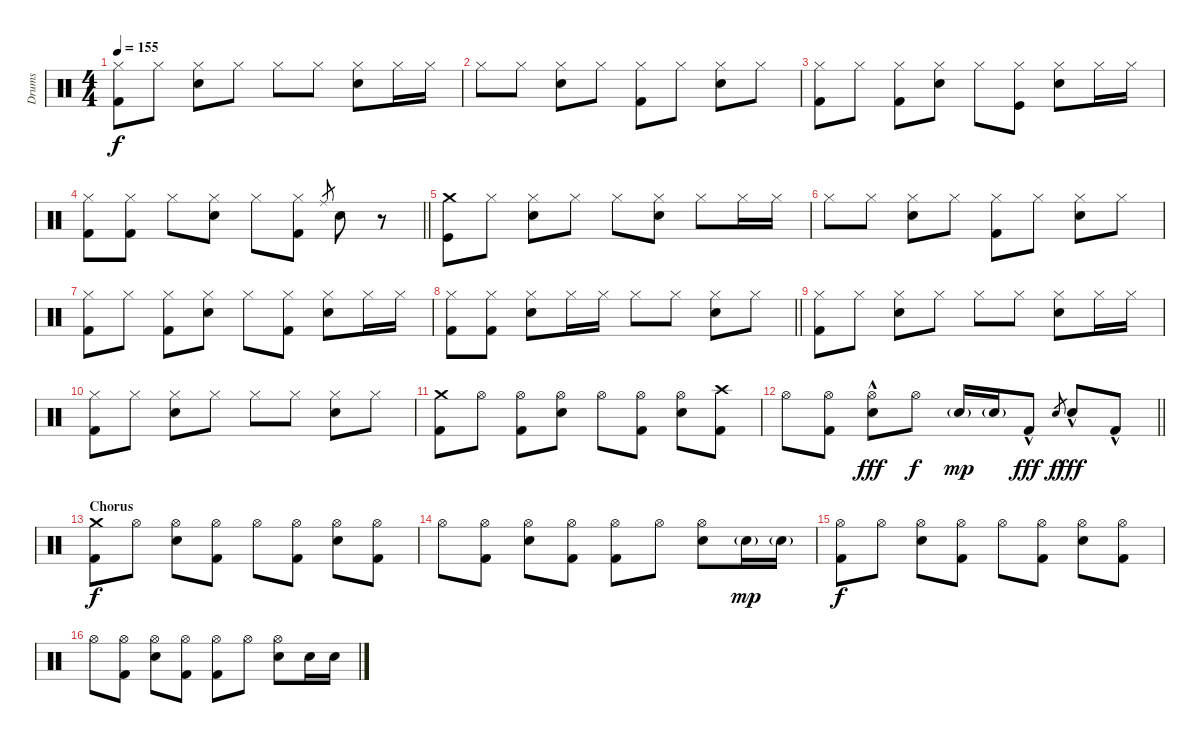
\track ("Drums" "Drums") {instrument percussion}
\staff {score}
\articulation defaults
\ts (4 4)
\tempo 155
\clef neutral
\ks c
("Hi-Hat (closed)" "Kick (hit) 2").8{dy f} "Hi-Hat (closed)".8 ("Hi-Hat (closed)" "Snare (hit) 2").8 "Hi-Hat (closed)".8 "Hi-Hat (closed)".8 "Hi-Hat (closed)".8 ("Hi-Hat (closed)" "Snare (hit) 2").8 "Hi-Hat (closed)".16 "Hi-Hat (closed)".16 |
"Hi-Hat (closed)".8 "Hi-Hat (closed)".8 ("Hi-Hat (closed)" "Snare (hit) 2").8 "Hi-Hat (closed)".8 ("Hi-Hat (closed)" "Kick (hit) 2").8 "Hi-Hat (closed)".8 ("Hi-Hat (closed)" "Snare (hit) 2").8 "Hi-Hat (closed)".8 |
("Hi-Hat (closed)" "Kick (hit) 2").8 "Hi-Hat (closed)".8 ("Hi-Hat (closed)" "Kick (hit) 2").8 ("Hi-Hat (closed)" "Snare (hit) 2").8 "Hi-Hat (closed)".8 ("Hi-Hat (closed)" "Kick (hit)").8 ("Hi-Hat (closed)" "Snare (hit) 2").8 "Hi-Hat (closed)".16 "Hi-Hat (closed)".16 |
\barLineRight lightlight
("Hi-Hat (closed)" "Kick (hit) 2").8 ("Hi-Hat (closed)" "Kick (hit) 2").8 "Hi-Hat (closed)".8 ("Hi-Hat (closed)" "Snare (hit) 2").8 "Hi-Hat (closed)".8 ("Hi-Hat (closed)" "Kick (hit) 2").8 "Ride (middle)".8{gr} "Snare (hit) 2".8 r.8 |
("Crash medium (hit)" "Kick (hit)").8 "Hi-Hat (closed)".8 ("Hi-Hat (closed)" "Snare (hit) 2").8 "Hi-Hat (closed)".8 "Hi-Hat (closed)".8 ("Hi-Hat (closed)" "Snare (hit) 2").8 "Hi-Hat (closed)".8 "Hi-Hat (closed)".16 "Hi-Hat (closed)".16 |
"Hi-Hat (closed)".8 "Hi-Hat (closed)".8 ("Hi-Hat (closed)" "Snare (hit) 2").8 "Hi-Hat (closed)".8 ("Hi-Hat (closed)" "Kick (hit) 2").8 "Hi-Hat (closed)".8 ("Hi-Hat (closed)" "Snare (hit) 2").8 "Hi-Hat (closed)".8 |
("Hi-Hat (closed)" "Kick (hit) 2").8 "Hi-Hat (closed)".8 ("Hi-Hat (closed)" "Kick (hit) 2").8 ("Hi-Hat (closed)" "Snare (hit) 2").8 "Hi-Hat (closed)".8 ("Hi-Hat (closed)" "Kick (hit) 2").8 ("Hi-Hat (closed)" "Snare (hit) 2").8 "Hi-Hat (closed)".16 "Hi-Hat (closed)".16 |
\barLineRight lightlight
("Hi-Hat (closed)" "Kick (hit) 2").8 ("Hi-Hat (closed)" "Kick (hit) 2").8 ("Hi-Hat (closed)" "Snare (hit) 2").8 "Hi-Hat (closed)".16 "Hi-Hat (closed)".16 "Hi-Hat (closed)".8 "Hi-Hat (closed)".8 ("Hi-Hat (closed)" "Snare (hit) 2").8 "Hi-Hat (closed)".8 |
("Hi-Hat (closed)" "Kick (hit) 2").8 "Hi-Hat (closed)".8 ("Hi-Hat (closed)" "Snare (hit) 2").8 "Hi-Hat (closed)".8 "Hi-Hat (closed)".8 "Hi-Hat (closed)".8 ("Hi-Hat (closed)" "Snare (hit) 2").8 "Hi-Hat (closed)".16 "Hi-Hat (closed)".16 |
("Hi-Hat (closed)" "Kick (hit) 2").8 "Hi-Hat (closed)".8 ("Hi-Hat (closed)" "Snare (hit) 2").8 "Hi-Hat (closed)".8 "Hi-Hat (closed)".8 "Hi-Hat (closed)".8 ("Hi-Hat (closed)" "Snare (hit) 2").8 "Hi-Hat (closed)".8 |
("Crash medium (hit)" "Kick (hit) 2").8 "Hi-Hat (open)".8 ("Hi-Hat (open)" "Kick (hit) 2").8 ("Hi-Hat (open)" "Snare (hit) 2").8 "Hi-Hat (open)".8 ("Hi-Hat (open)" "Kick (hit) 2").8 ("Hi-Hat (open)" "Snare (hit) 2").8 ("Crash high (hit)" "Kick (hit) 2").8 |
\barLineRight lightlight "Hi-Hat (open)".8
("Hi-Hat (open)" "Kick (hit) 2").8 ("Hi-Hat (open)" "Snare (hit) 2"{hac}).8{dy fff} "Hi-Hat (open)".8{dy f} "Snare (hit) 2"{g}.16{dy mp} "Snare (hit) 2"{g}.16 "Kick (hit) 2"{hac}.8{dy fff} "Snare (hit) 2".8{gr dy f} "Snare (hit) 2"{hac}.8{dy fff} "Kick (hit) 2"{hac}.8 |
\section ("" "Chorus")
("Crash medium (hit)" "Kick (hit) 2").8{dy f} "Hi-Hat (open)".8 ("Hi-Hat (open)" "Snare (hit) 2").8 ("Hi-Hat (open)" "Kick (hit) 2").8 "Hi-Hat (open)".8 ("Hi-Hat (open)" "Kick (hit) 2").8 ("Hi-Hat (open)" "Snare (hit) 2").8 ("Hi-Hat (open)" "Kick (hit) 2").8 |
"Hi-Hat (open)".8 ("Hi-Hat (open)" "Kick (hit) 2").8 ("Hi-Hat (open)" "Snare (hit) 2").8 ("Hi-Hat (open)" "Kick (hit) 2").8 ("Hi-Hat (open)" "Kick (hit) 2").8 "Hi-Hat (open)".8 ("Hi-Hat (open)" "Snare (hit) 2").8 "Snare (hit) 2"{g}.16{dy mp} "Snare (hit) 2"{g}.16 |
("Hi-Hat (open)" "Kick (hit) 2").8{dy f} "Hi-Hat (open)".8 ("Hi-Hat (open)" "Snare (hit) 2").8 ("Hi-Hat (open)" "Kick (hit) 2").8 "Hi-Hat (open)".8 ("Hi-Hat (open)" "Kick (hit) 2").8 ("Hi-Hat (open)" "Snare (hit) 2").8 ("Hi-Hat (open)" "Kick (hit) 2").8 |
"Hi-Hat (open)".8 ("Hi-Hat (open)" "Kick (hit) 2").8 ("Hi-Hat (open)" "Snare (hit) 2").8 ("Hi-Hat (open)" "Kick (hit) 2").8 ("Hi-Hat (open)" "Kick (hit) 2").8 "Hi-Hat (open)".8 ("Hi-Hat (open)" "Snare (hit) 2").8 "Snare (hit) 2".16 "Snare (hit) 2".16
